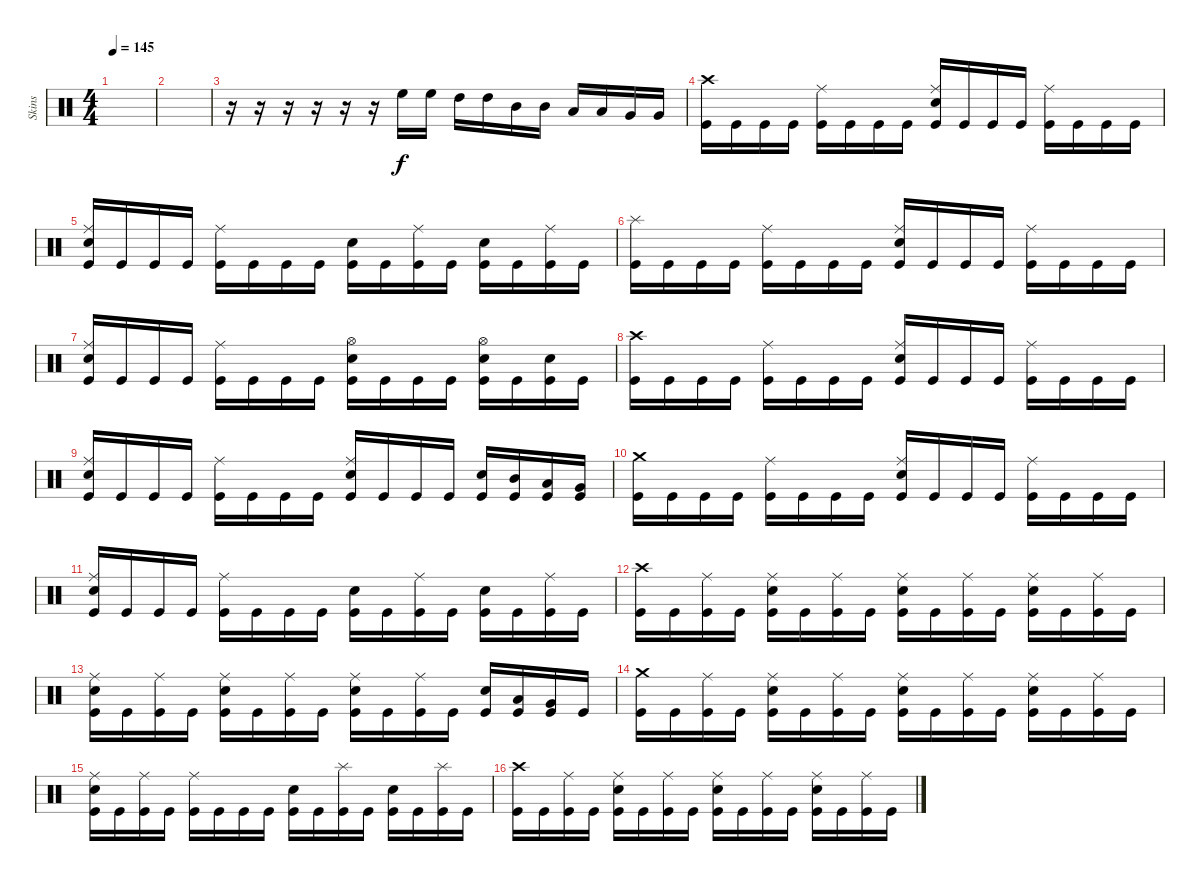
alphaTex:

\track ("Skins" "Skins") {instrument percussion}
\staff {score}
\articulation defaults
\ts (4 4)
\tempo 145
\clef neutral
\ks c
|
|
r.16{volume 12 balance 8} r.16 r.16 r.16 r.16 r.16 "High Floor Tom (hit)".16{dy f} "High Floor Tom (hit)".16 "High Tom (hit)".16 "High Tom (hit)".16 "Mid Tom (hit)".16 "Mid Tom (hit)".16 "Low Tom (hit)".16 "Low Tom (hit)".16 "Very Low Tom (hit)".16 "Very Low Tom (hit)".16 |
("Crash high (hit)" "Kick (hit)").16 "Kick (hit)".16 "Kick (hit)".16 "Kick (hit)".16 ("Ride (middle)" "Kick (hit)").16 "Kick (hit)".16 "Kick (hit)".16 "Kick (hit)".16 ("Ride (middle)" "Electric Snare (hit)" "Kick (hit)").16 "Kick (hit)".16 "Kick (hit)".16 "Kick (hit)".16 ("Ride (middle)" "Kick (hit)").16 "Kick (hit)".16 "Kick (hit)".16 "Kick (hit)".16 |
("Ride (middle)" "Electric Snare (hit)" "Kick (hit)").16 "Kick (hit)".16 "Kick (hit)".16 "Kick (hit)".16 ("Ride (middle)" "Kick (hit)").16 "Kick (hit)".16 "Kick (hit)".16 "Kick (hit)".16 ("Electric Snare (hit)" "Kick (hit)").16 "Kick (hit)".16 ("Ride (middle)" "Kick (hit)").16 "Kick (hit)".16 ("Electric Snare (hit)" "Kick (hit)").16 "Kick (hit)".16 ("Ride (middle)" "Kick (hit)").16 "Kick (hit)".16 |
("Splash (hit)" "Kick (hit)").16 "Kick (hit)".16 "Kick (hit)".16 "Kick (hit)".16 ("Ride (middle)" "Kick (hit)").16 "Kick (hit)".16 "Kick (hit)".16 "Kick (hit)".16 ("Ride (middle)" "Electric Snare (hit)" "Kick (hit)").16 "Kick (hit)".16 "Kick (hit)".16 "Kick (hit)".16 ("Ride (middle)" "Kick (hit)").16 "Kick (hit)".16 "Kick (hit)".16 "Kick (hit)".16 |
("Ride (middle)" "Electric Snare (hit)" "Kick (hit)").16 "Kick (hit)".16 "Kick (hit)".16 "Kick (hit)".16 ("Ride (middle)" "Kick (hit)").16 "Kick (hit)".16 "Kick (hit)".16 "Kick (hit)".16 ("Hi-Hat (open)" "Electric Snare (hit)" "Kick (hit)").16 "Kick (hit)".16 "Kick (hit)".16 "Kick (hit)".16 ("Hi-Hat (open)" "Electric Snare (hit)" "Kick (hit)").16 "Kick (hit)".16 ("Snare (hit) 2" "Kick (hit)").16 "Kick (hit)".16 |
("Crash high (hit)" "Kick (hit)").16 "Kick (hit)".16 "Kick (hit)".16 "Kick (hit)".16 ("Ride (middle)" "Kick (hit)").16 "Kick (hit)".16 "Kick (hit)".16 "Kick (hit)".16 ("Ride (middle)" "Electric Snare (hit)" "Kick (hit)").16 "Kick (hit)".16 "Kick (hit)".16 "Kick (hit)".16 ("Ride (middle)" "Kick (hit)").16 "Kick (hit)".16 "Kick (hit)".16 "Kick (hit)".16 |
("Ride (middle)" "Electric Snare (hit)" "Kick (hit)").16 "Kick (hit)".16 "Kick (hit)".16 "Kick (hit)".16 ("Ride (middle)" "Kick (hit)").16 "Kick (hit)".16 "Kick (hit)".16 "Kick (hit)".16 ("Ride (middle)" "Electric Snare (hit)" "Kick (hit)").16 "Kick (hit)".16 "Kick (hit)".16 "Kick (hit)".16 ("Electric Snare (hit)" "Kick (hit)").16 ("Mid Tom (hit)" "Kick (hit)").16 ("Low Tom (hit)" "Kick (hit)").16 ("Very Low Tom (hit)" "Kick (hit)").16 |
("Crash medium (hit)" "Kick (hit)").16 "Kick (hit)".16 "Kick (hit)".16 "Kick (hit)".16 ("Ride (middle)" "Kick (hit)").16 "Kick (hit)".16 "Kick (hit)".16 "Kick (hit)".16 ("Ride (middle)" "Electric Snare (hit)" "Kick (hit)").16 "Kick (hit)".16 "Kick (hit)".16 "Kick (hit)".16 ("Ride (middle)" "Kick (hit)").16 "Kick (hit)".16 "Kick (hit)".16 "Kick (hit)".16 |
("Ride (middle)" "Electric Snare (hit)" "Kick (hit)").16 "Kick (hit)".16 "Kick (hit)".16 "Kick (hit)".16 ("Ride (middle)" "Kick (hit)").16 "Kick (hit)".16 "Kick (hit)".16 "Kick (hit)".16 ("Electric Snare (hit)" "Kick (hit)").16 "Kick (hit)".16 ("Ride (middle)" "Kick (hit)").16 "Kick (hit)".16 ("Electric Snare (hit)" "Kick (hit)").16 "Kick (hit)".16 ("Ride (middle)" "Kick (hit)").16 "Kick (hit)".16 |
("Crash high (hit)" "Kick (hit)").16 "Kick (hit)".16 ("Ride (middle)" "Kick (hit)").16 "Kick (hit)".16 ("Ride (middle)" "Electric Snare (hit)" "Kick (hit)").16 "Kick (hit)".16 ("Ride (middle)" "Kick (hit)").16 "Kick (hit)".16 ("Ride (middle)" "Electric Snare (hit)" "Kick (hit)").16 "Kick (hit)".16 ("Ride (middle)" "Kick (hit)").16 "Kick (hit)".16 ("Ride (middle)" "Electric Snare (hit)" "Kick (hit)").16 "Kick (hit)".16 ("Ride (middle)" "Kick (hit)").16 "Kick (hit)".16 |
("Ride (middle)" "Electric Snare (hit)" "Kick (hit)").16 "Kick (hit)".16 ("Ride (middle)" "Kick (hit)").16 "Kick (hit)".16 ("Ride (middle)" "Electric Snare (hit)" "Kick (hit)").16 "Kick (hit)".16 ("Ride (middle)" "Kick (hit)").16 "Kick (hit)".16 ("Ride (middle)" "Electric Snare (hit)" "Kick (hit)").16 "Kick (hit)".16 ("Ride (middle)" "Kick (hit)").16 "Kick (hit)".16 ("Electric Snare (hit)" "Kick (hit)").16 ("Low Tom (hit)" "Kick (hit)").16 ("Very Low Tom (hit)" "Kick (hit)").16 "Kick (hit)".16 |
("Crash medium (hit)" "Kick (hit)").16 "Kick (hit)".16 ("Ride (middle)" "Kick (hit)").16 "Kick (hit)".16 ("Ride (middle)" "Electric Snare (hit)" "Kick (hit)").16 "Kick (hit)".16 ("Ride (middle)" "Kick (hit)").16 "Kick (hit)".16 ("Ride (middle)" "Electric Snare (hit)" "Kick (hit)").16 "Kick (hit)".16 ("Ride (middle)" "Kick (hit)").16 "Kick (hit)".16 ("Ride (middle)" "Electric Snare (hit)" "Kick (hit)").16 "Kick (hit)".16 ("Ride (middle)" "Kick (hit)").16 "Kick (hit)".16 |
("Ride (middle)" "Electric Snare (hit)" "Kick (hit)").16 "Kick (hit)".16 ("Ride (middle)" "Kick (hit)").16 "Kick (hit)".16 ("Ride (middle)" "Kick (hit)").16 "Kick (hit)".16 "Kick (hit)".16 "Kick (hit)".16 ("Electric Snare (hit)" "Kick (hit)").16 "Kick (hit)".16 ("Splash (hit)" "Kick (hit)").16 "Kick (hit)".16 ("Electric Snare (hit)" "Kick (hit)").16 "Kick (hit)".16 ("Splash (hit)" "Kick (hit)").16 "Kick (hit)".16 |
("Crash high (hit)" "Kick (hit)").16 "Kick (hit)".16 ("Ride (middle)" "Kick (hit)").16 "Kick (hit)".16 ("Ride (middle)" "Electric Snare (hit)" "Kick (hit)").16 "Kick (hit)".16 ("Ride (middle)" "Kick (hit)").16 "Kick (hit)".16 ("Ride (middle)" "Electric Snare (hit)" "Kick (hit)").16 "Kick (hit)".16 ("Ride (middle)" "Kick (hit)").16 "Kick (hit)".16 ("Ride (middle)" "Electric Snare (hit)" "Kick (hit)").16 "Kick (hit)".16 ("Ride (middle)" "Kick (hit)").16 "Kick (hit)".16
